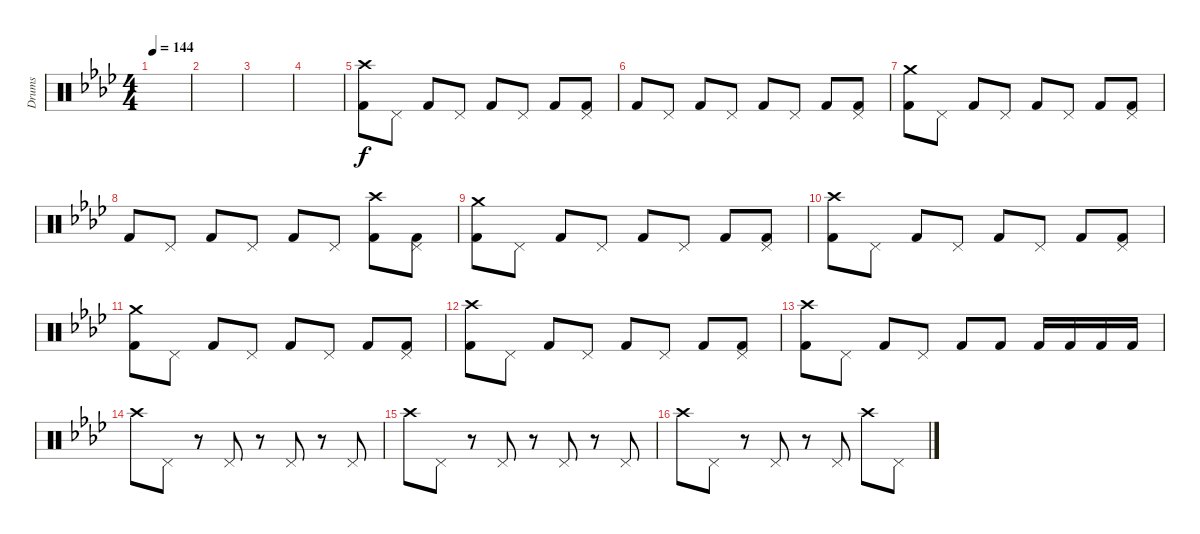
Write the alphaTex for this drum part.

\track ("Drums" "Drums") {instrument percussion}
\staff {score}
\articulation defaults
\ts (4 4)
\tempo 144
\clef neutral
\ks ab
|
|
|
|
("Kick (hit) 2" "Crash high (hit)").8 "Pedal Hi-Hat (hit)".8 "Kick (hit) 2".8 "Pedal Hi-Hat (hit)".8 "Kick (hit) 2".8 "Pedal Hi-Hat (hit)".8 "Kick (hit) 2".8 ("Kick (hit) 2" "Pedal Hi-Hat (hit)").8 |
"Kick (hit) 2".8 "Pedal Hi-Hat (hit)".8 "Kick (hit) 2".8 "Pedal Hi-Hat (hit)".8 "Kick (hit) 2".8 "Pedal Hi-Hat (hit)".8 "Kick (hit) 2".8 ("Kick (hit) 2" "Pedal Hi-Hat (hit)").8 |
("Kick (hit) 2" "Crash medium (hit)").8 "Pedal Hi-Hat (hit)".8 "Kick (hit) 2".8 "Pedal Hi-Hat (hit)".8 "Kick (hit) 2".8 "Pedal Hi-Hat (hit)".8 "Kick (hit) 2".8 ("Kick (hit) 2" "Pedal Hi-Hat (hit)").8 |
"Kick (hit) 2".8 "Pedal Hi-Hat (hit)".8 "Kick (hit) 2".8 "Pedal Hi-Hat (hit)".8 "Kick (hit) 2".8 "Pedal Hi-Hat (hit)".8 ("Kick (hit) 2" "Crash high (hit)").8 ("Kick (hit) 2" "Pedal Hi-Hat (hit)").8 |
("Kick (hit) 2" "Crash medium (hit)").8 "Pedal Hi-Hat (hit)".8 "Kick (hit) 2".8 "Pedal Hi-Hat (hit)".8 "Kick (hit) 2".8 "Pedal Hi-Hat (hit)".8 "Kick (hit) 2".8 ("Kick (hit) 2" "Pedal Hi-Hat (hit)").8 |
("Kick (hit) 2" "Crash high (hit)").8 "Pedal Hi-Hat (hit)".8 "Kick (hit) 2".8 "Pedal Hi-Hat (hit)".8 "Kick (hit) 2".8 "Pedal Hi-Hat (hit)".8 "Kick (hit) 2".8 ("Kick (hit) 2" "Pedal Hi-Hat (hit)").8 |
("Kick (hit) 2" "Crash medium (hit)").8 "Pedal Hi-Hat (hit)".8 "Kick (hit) 2".8 "Pedal Hi-Hat (hit)".8 "Kick (hit) 2".8 "Pedal Hi-Hat (hit)".8 "Kick (hit) 2".8 ("Kick (hit) 2" "Pedal Hi-Hat (hit)").8 |
("Kick (hit) 2" "Crash high (hit)").8 "Pedal Hi-Hat (hit)".8 "Kick (hit) 2".8 "Pedal Hi-Hat (hit)".8 "Kick (hit) 2".8 "Pedal Hi-Hat (hit)".8 "Kick (hit) 2".8 ("Kick (hit) 2" "Pedal Hi-Hat (hit)").8 |
("Kick (hit) 2" "Crash high (hit)").8 "Pedal Hi-Hat (hit)".8 "Kick (hit) 2".8 "Pedal Hi-Hat (hit)".8 "Kick (hit) 2".8 "Kick (hit) 2".8 "Kick (hit) 2".16 "Kick (hit) 2".16 "Kick (hit) 2".16 "Kick (hit) 2".16 |
"Crash high (hit)".8 "Pedal Hi-Hat (hit)".8 r.8 "Pedal Hi-Hat (hit)".8 r.8 "Pedal Hi-Hat (hit)".8 r.8 "Pedal Hi-Hat (hit)".8 |
"Crash high (hit)".8 "Pedal Hi-Hat (hit)".8 r.8 "Pedal Hi-Hat (hit)".8 r.8 "Pedal Hi-Hat (hit)".8 r.8 "Pedal Hi-Hat (hit)".8 |
"Crash high (hit)".8 "Pedal Hi-Hat (hit)".8 r.8 "Pedal Hi-Hat (hit)".8 r.8 "Pedal Hi-Hat (hit)".8 "Crash high (hit)".8 "Pedal Hi-Hat (hit)".8
